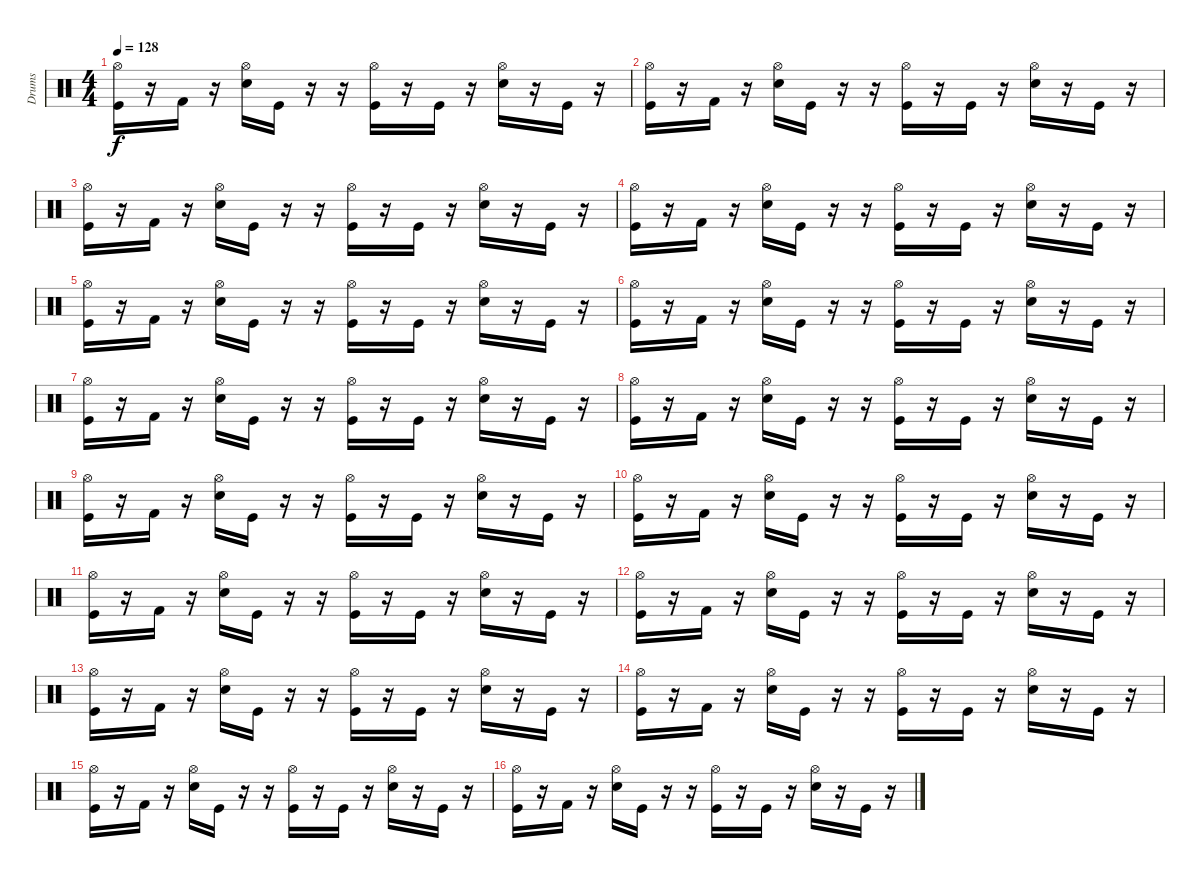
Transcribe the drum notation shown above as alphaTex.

\track ("Drums" "Drums") {instrument percussion}
\staff {score}
\articulation defaults
\ts (4 4)
\tempo 128
\clef neutral
\ks c
("Hi-Hat (open)" "Kick (hit)").16{dy f} r.16 "Kick (hit) 2".16 r.16 ("Hi-Hat (open)" "Electric Snare (hit)").16 "Kick (hit)".16 r.16 r.16 ("Hi-Hat (open)" "Kick (hit)").16 r.16 "Kick (hit)".16 r.16 ("Hi-Hat (open)" "Electric Snare (hit)").16 r.16 "Kick (hit)".16 r.16 |
("Hi-Hat (open)" "Kick (hit)").16 r.16 "Kick (hit) 2".16 r.16 ("Hi-Hat (open)" "Electric Snare (hit)").16 "Kick (hit)".16 r.16 r.16 ("Hi-Hat (open)" "Kick (hit)").16 r.16 "Kick (hit)".16 r.16 ("Hi-Hat (open)" "Electric Snare (hit)").16 r.16 "Kick (hit)".16 r.16 |
("Hi-Hat (open)" "Kick (hit)").16 r.16 "Kick (hit) 2".16 r.16 ("Hi-Hat (open)" "Electric Snare (hit)").16 "Kick (hit)".16 r.16 r.16 ("Hi-Hat (open)" "Kick (hit)").16 r.16 "Kick (hit)".16 r.16 ("Hi-Hat (open)" "Electric Snare (hit)").16 r.16 "Kick (hit)".16 r.16 |
("Hi-Hat (open)" "Kick (hit)").16 r.16 "Kick (hit) 2".16 r.16 ("Hi-Hat (open)" "Electric Snare (hit)").16 "Kick (hit)".16 r.16 r.16 ("Hi-Hat (open)" "Kick (hit)").16 r.16 "Kick (hit)".16 r.16 ("Hi-Hat (open)" "Electric Snare (hit)").16 r.16 "Kick (hit)".16 r.16 |
("Hi-Hat (open)" "Kick (hit)").16 r.16 "Kick (hit) 2".16 r.16 ("Hi-Hat (open)" "Electric Snare (hit)").16 "Kick (hit)".16 r.16 r.16 ("Hi-Hat (open)" "Kick (hit)").16 r.16 "Kick (hit)".16 r.16 ("Hi-Hat (open)" "Electric Snare (hit)").16 r.16 "Kick (hit)".16 r.16 |
("Hi-Hat (open)" "Kick (hit)").16 r.16 "Kick (hit) 2".16 r.16 ("Hi-Hat (open)" "Electric Snare (hit)").16 "Kick (hit)".16 r.16 r.16 ("Hi-Hat (open)" "Kick (hit)").16 r.16 "Kick (hit)".16 r.16 ("Hi-Hat (open)" "Electric Snare (hit)").16 r.16 "Kick (hit)".16 r.16 |
("Hi-Hat (open)" "Kick (hit)").16 r.16 "Kick (hit) 2".16 r.16 ("Hi-Hat (open)" "Electric Snare (hit)").16 "Kick (hit)".16 r.16 r.16 ("Hi-Hat (open)" "Kick (hit)").16 r.16 "Kick (hit)".16 r.16 ("Hi-Hat (open)" "Electric Snare (hit)").16 r.16 "Kick (hit)".16 r.16 |
("Hi-Hat (open)" "Kick (hit)").16 r.16 "Kick (hit) 2".16 r.16 ("Hi-Hat (open)" "Electric Snare (hit)").16 "Kick (hit)".16 r.16 r.16 ("Hi-Hat (open)" "Kick (hit)").16 r.16 "Kick (hit)".16 r.16 ("Hi-Hat (open)" "Electric Snare (hit)").16 r.16 "Kick (hit)".16 r.16 |
("Hi-Hat (open)" "Kick (hit)").16 r.16 "Kick (hit) 2".16 r.16 ("Hi-Hat (open)" "Electric Snare (hit)").16 "Kick (hit)".16 r.16 r.16 ("Hi-Hat (open)" "Kick (hit)").16 r.16 "Kick (hit)".16 r.16 ("Hi-Hat (open)" "Electric Snare (hit)").16 r.16 "Kick (hit)".16 r.16 |
("Hi-Hat (open)" "Kick (hit)").16 r.16 "Kick (hit) 2".16 r.16 ("Hi-Hat (open)" "Electric Snare (hit)").16 "Kick (hit)".16 r.16 r.16 ("Hi-Hat (open)" "Kick (hit)").16 r.16 "Kick (hit)".16 r.16 ("Hi-Hat (open)" "Electric Snare (hit)").16 r.16 "Kick (hit)".16 r.16 |
("Hi-Hat (open)" "Kick (hit)").16 r.16 "Kick (hit) 2".16 r.16 ("Hi-Hat (open)" "Electric Snare (hit)").16 "Kick (hit)".16 r.16 r.16 ("Hi-Hat (open)" "Kick (hit)").16 r.16 "Kick (hit)".16 r.16 ("Hi-Hat (open)" "Electric Snare (hit)").16 r.16 "Kick (hit)".16 r.16 |
("Hi-Hat (open)" "Kick (hit)").16 r.16 "Kick (hit) 2".16 r.16 ("Hi-Hat (open)" "Electric Snare (hit)").16 "Kick (hit)".16 r.16 r.16 ("Hi-Hat (open)" "Kick (hit)").16 r.16 "Kick (hit)".16 r.16 ("Hi-Hat (open)" "Electric Snare (hit)").16 r.16 "Kick (hit)".16 r.16 |
("Hi-Hat (open)" "Kick (hit)").16 r.16 "Kick (hit) 2".16 r.16 ("Hi-Hat (open)" "Electric Snare (hit)").16 "Kick (hit)".16 r.16 r.16 ("Hi-Hat (open)" "Kick (hit)").16 r.16 "Kick (hit)".16 r.16 ("Hi-Hat (open)" "Electric Snare (hit)").16 r.16 "Kick (hit)".16 r.16 |
("Hi-Hat (open)" "Kick (hit)").16 r.16 "Kick (hit) 2".16 r.16 ("Hi-Hat (open)" "Electric Snare (hit)").16 "Kick (hit)".16 r.16 r.16 ("Hi-Hat (open)" "Kick (hit)").16 r.16 "Kick (hit)".16 r.16 ("Hi-Hat (open)" "Electric Snare (hit)").16 r.16 "Kick (hit)".16 r.16 |
("Hi-Hat (open)" "Kick (hit)").16 r.16 "Kick (hit) 2".16 r.16 ("Hi-Hat (open)" "Electric Snare (hit)").16 "Kick (hit)".16 r.16 r.16 ("Hi-Hat (open)" "Kick (hit)").16 r.16 "Kick (hit)".16 r.16 ("Hi-Hat (open)" "Electric Snare (hit)").16 r.16 "Kick (hit)".16 r.16 |
("Hi-Hat (open)" "Kick (hit)").16 r.16 "Kick (hit) 2".16 r.16 ("Hi-Hat (open)" "Electric Snare (hit)").16 "Kick (hit)".16 r.16 r.16 ("Hi-Hat (open)" "Kick (hit)").16 r.16 "Kick (hit)".16 r.16 ("Hi-Hat (open)" "Electric Snare (hit)").16 r.16 "Kick (hit)".16 r.16
